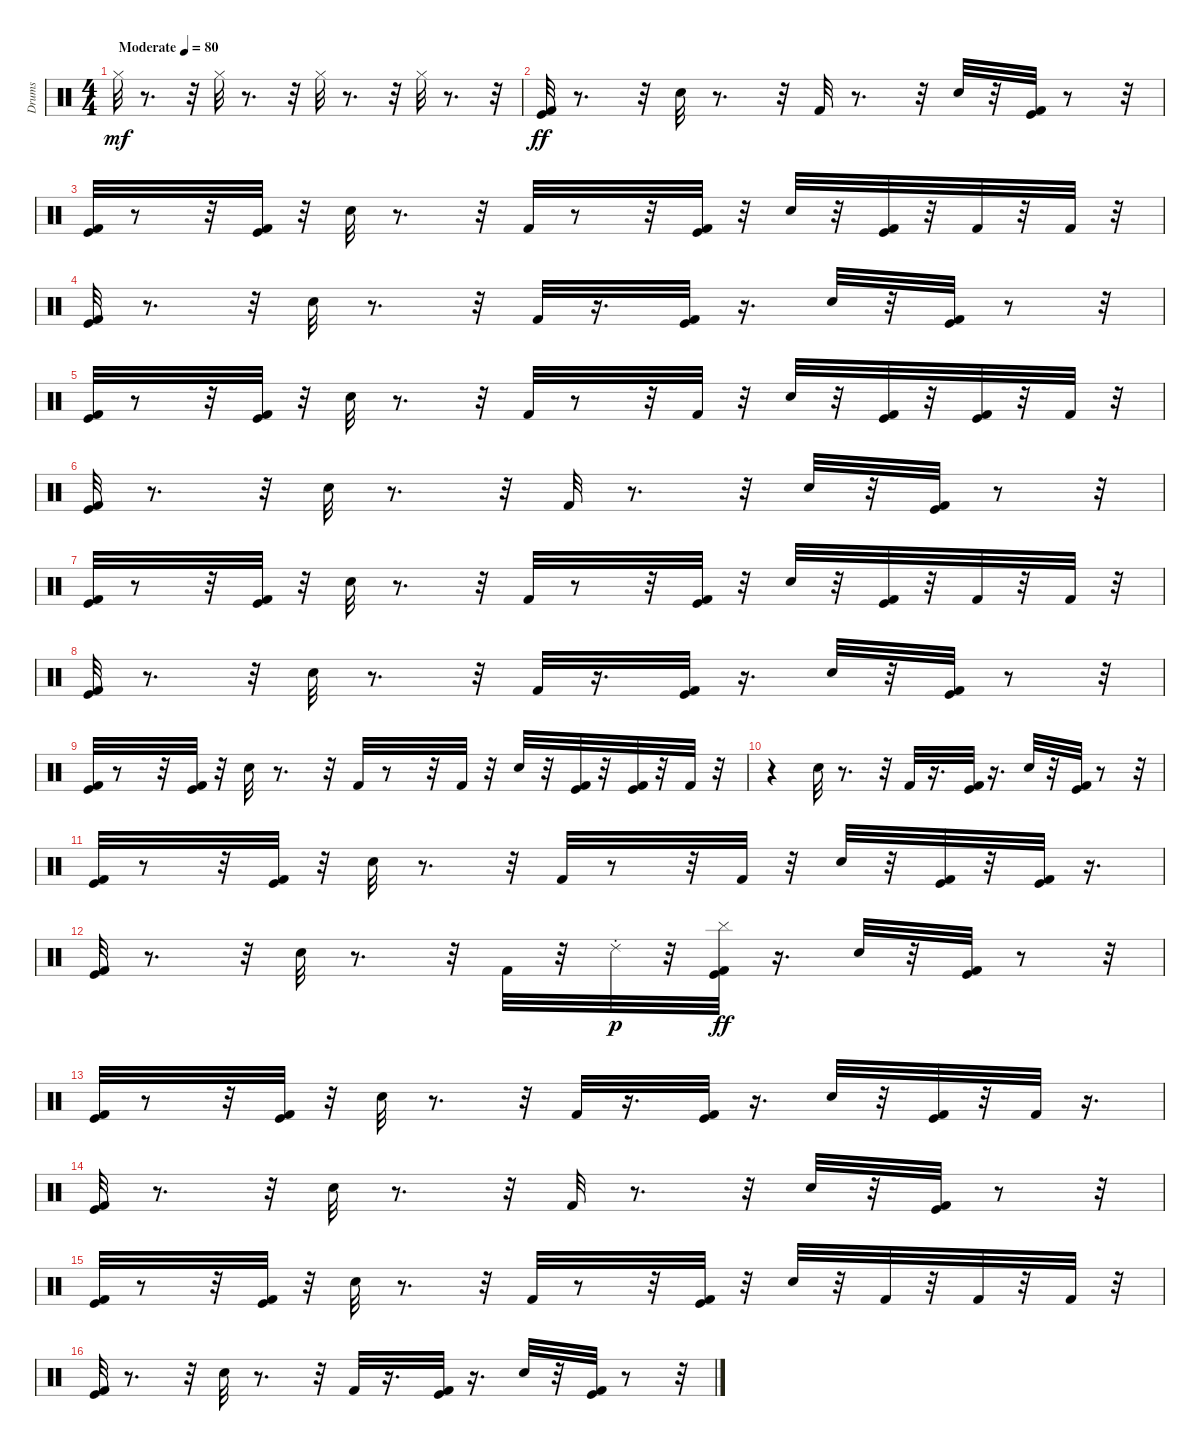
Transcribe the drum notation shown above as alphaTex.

\track ("Drums" "Drums") {instrument percussion}
\staff {score}
\articulation defaults
\ts (4 4)
\tempo (80 "Moderate")
\clef neutral
\ks c "Hi-Hat (closed)".32{dy mf}
r.8{d} r.32 "Hi-Hat (closed)".32 r.8{d} r.32 "Hi-Hat (closed)".32 r.8{d} r.32 "Hi-Hat (closed)".32 r.8{d} r.32 |
("Kick (hit)" "Kick (hit) 2").32{dy ff} r.8{d} r.32 "Hand Clap (hit)".32 r.8{d} r.32 "Kick (hit) 2".32 r.8{d} r.32 "Hand Clap (hit)".32 r.32 ("Kick (hit)" "Kick (hit) 2").32 r.8 r.32 |
("Kick (hit)" "Kick (hit) 2").32 r.8 r.32 ("Kick (hit)" "Kick (hit) 2").32 r.32 "Hand Clap (hit)".32 r.8{d} r.32 "Kick (hit) 2".32 r.8 r.32 ("Kick (hit)" "Kick (hit) 2").32 r.32 "Hand Clap (hit)".32 r.32 ("Kick (hit)" "Kick (hit) 2").32 r.32 "Kick (hit) 2".32 r.32 "Kick (hit) 2".32 r.32 |
("Kick (hit)" "Kick (hit) 2").32 r.8{d} r.32 "Hand Clap (hit)".32 r.8{d} r.32 "Kick (hit) 2".32 r.16{d} ("Kick (hit)" "Kick (hit) 2").32 r.16{d} "Hand Clap (hit)".32 r.32 ("Kick (hit)" "Kick (hit) 2").32 r.8 r.32 |
("Kick (hit)" "Kick (hit) 2").32 r.8 r.32 ("Kick (hit)" "Kick (hit) 2").32 r.32 "Hand Clap (hit)".32 r.8{d} r.32 "Kick (hit) 2".32 r.8 r.32 "Kick (hit) 2".32 r.32 "Hand Clap (hit)".32 r.32 ("Kick (hit)" "Kick (hit) 2").32 r.32 ("Kick (hit)" "Kick (hit) 2").32 r.32 "Kick (hit) 2".32 r.32 |
("Kick (hit)" "Kick (hit) 2").32 r.8{d} r.32 "Hand Clap (hit)".32 r.8{d} r.32 "Kick (hit) 2".32 r.8{d} r.32 "Hand Clap (hit)".32 r.32 ("Kick (hit)" "Kick (hit) 2").32 r.8 r.32 |
("Kick (hit)" "Kick (hit) 2").32 r.8 r.32 ("Kick (hit)" "Kick (hit) 2").32 r.32 "Hand Clap (hit)".32 r.8{d} r.32 "Kick (hit) 2".32 r.8 r.32 ("Kick (hit)" "Kick (hit) 2").32 r.32 "Hand Clap (hit)".32 r.32 ("Kick (hit)" "Kick (hit) 2").32 r.32 "Kick (hit) 2".32 r.32 "Kick (hit) 2".32 r.32 |
("Kick (hit)" "Kick (hit) 2").32 r.8{d} r.32 "Hand Clap (hit)".32 r.8{d} r.32 "Kick (hit) 2".32 r.16{d} ("Kick (hit)" "Kick (hit) 2").32 r.16{d} "Hand Clap (hit)".32 r.32 ("Kick (hit)" "Kick (hit) 2").32 r.8 r.32 |
("Kick (hit)" "Kick (hit) 2").32 r.8 r.32 ("Kick (hit)" "Kick (hit) 2").32 r.32 "Hand Clap (hit)".32 r.8{d} r.32 "Kick (hit) 2".32 r.8 r.32 "Kick (hit) 2".32 r.32 "Hand Clap (hit)".32 r.32 ("Kick (hit)" "Kick (hit) 2").32 r.32 ("Kick (hit)" "Kick (hit) 2").32 r.32 "Kick (hit) 2".32 r.32 |
r.4 "Hand Clap (hit)".32 r.8{d} r.32 "Kick (hit) 2".32 r.16{d} ("Kick (hit)" "Kick (hit) 2").32 r.16{d} "Hand Clap (hit)".32 r.32 ("Kick (hit)" "Kick (hit) 2").32 r.8 r.32 |
("Kick (hit)" "Kick (hit) 2").32 r.8 r.32 ("Kick (hit)" "Kick (hit) 2").32 r.32 "Hand Clap (hit)".32 r.8{d} r.32 "Kick (hit) 2".32 r.8 r.32 "Kick (hit) 2".32 r.32 "Hand Clap (hit)".32 r.32 ("Kick (hit)" "Kick (hit) 2").32 r.32 ("Kick (hit)" "Kick (hit) 2").32 r.16{d} |
("Kick (hit)" "Kick (hit) 2").32 r.8{d} r.32 "Hand Clap (hit)".32 r.8{d} r.32 "Kick (hit) 2".32 r.32 "Ride (choke) 2".32{dy p} r.32 ("Kick (hit)" "Cymbal (hit)" "Kick (hit) 2").32{dy ff} r.16{d} "Hand Clap (hit)".32 r.32 ("Kick (hit)" "Kick (hit) 2").32 r.8 r.32 |
("Kick (hit)" "Kick (hit) 2").32 r.8 r.32 ("Kick (hit)" "Kick (hit) 2").32 r.32 "Hand Clap (hit)".32 r.8{d} r.32 "Kick (hit) 2".32 r.16{d} ("Kick (hit)" "Kick (hit) 2").32 r.16{d} "Hand Clap (hit)".32 r.32 ("Kick (hit)" "Kick (hit) 2").32 r.32 "Kick (hit) 2".32 r.16{d} |
("Kick (hit)" "Kick (hit) 2").32 r.8{d} r.32 "Hand Clap (hit)".32 r.8{d} r.32 "Kick (hit) 2".32 r.8{d} r.32 "Hand Clap (hit)".32 r.32 ("Kick (hit)" "Kick (hit) 2").32 r.8 r.32 |
("Kick (hit)" "Kick (hit) 2").32 r.8 r.32 ("Kick (hit)" "Kick (hit) 2").32 r.32 "Hand Clap (hit)".32 r.8{d} r.32 "Kick (hit) 2".32 r.8 r.32 ("Kick (hit)" "Kick (hit) 2").32 r.32 "Hand Clap (hit)".32 r.32 "Kick (hit) 2".32 r.32 "Kick (hit) 2".32 r.32 "Kick (hit) 2".32 r.32 |
("Kick (hit)" "Kick (hit) 2").32 r.8{d} r.32 "Hand Clap (hit)".32 r.8{d} r.32 "Kick (hit) 2".32 r.16{d} ("Kick (hit)" "Kick (hit) 2").32 r.16{d} "Hand Clap (hit)".32 r.32 ("Kick (hit)" "Kick (hit) 2").32 r.8 r.32
